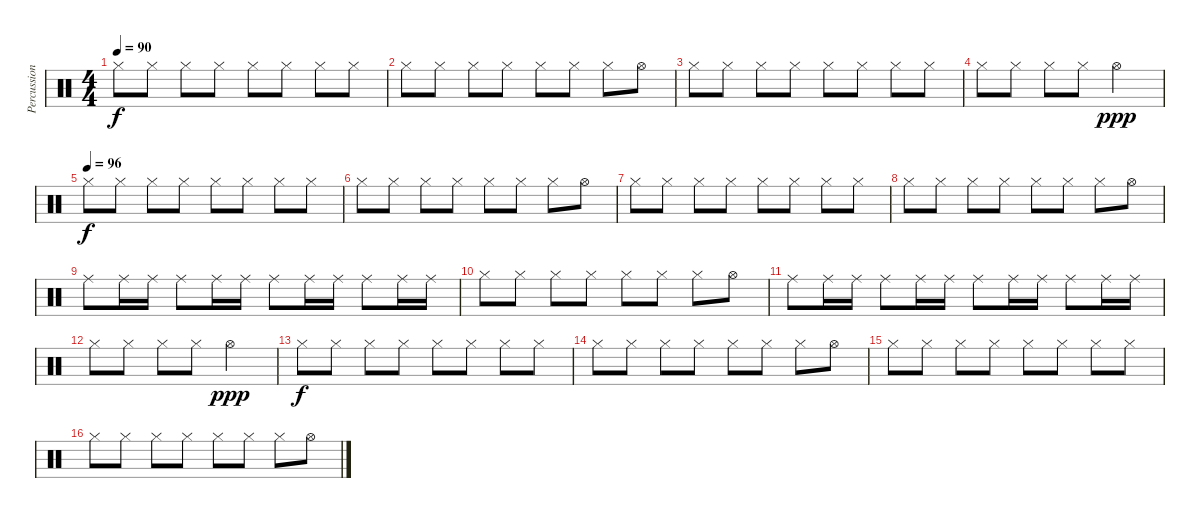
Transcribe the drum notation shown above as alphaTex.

\track ("Percussion" "Percussion") {instrument percussion}
\staff {score}
\articulation defaults
\ts (4 4)
\tempo 90
\clef neutral
\ks c "Hi-Hat (closed)".8{dy f} "Hi-Hat (closed)".8 "Hi-Hat (closed)".8 "Hi-Hat (closed)".8 "Hi-Hat (closed)".8 "Hi-Hat (closed)".8 "Hi-Hat (closed)".8 "Hi-Hat (closed)".8
|
"Hi-Hat (closed)".8 "Hi-Hat (closed)".8 "Hi-Hat (closed)".8 "Hi-Hat (closed)".8 "Hi-Hat (closed)".8 "Hi-Hat (closed)".8 "Hi-Hat (closed)".8 "Hi-Hat (open)".8 |
"Hi-Hat (closed)".8 "Hi-Hat (closed)".8 "Hi-Hat (closed)".8 "Hi-Hat (closed)".8 "Hi-Hat (closed)".8 "Hi-Hat (closed)".8 "Hi-Hat (closed)".8 "Hi-Hat (closed)".8 |
"Hi-Hat (closed)".8 "Hi-Hat (closed)".8 "Hi-Hat (closed)".8 "Hi-Hat (closed)".8 "Hi-Hat (open)".2{dy ppp} |
\tempo (96)
"Hi-Hat (closed)".8{dy f} "Hi-Hat (closed)".8 "Hi-Hat (closed)".8 "Hi-Hat (closed)".8 "Hi-Hat (closed)".8 "Hi-Hat (closed)".8 "Hi-Hat (closed)".8 "Hi-Hat (closed)".8 |
"Hi-Hat (closed)".8 "Hi-Hat (closed)".8 "Hi-Hat (closed)".8 "Hi-Hat (closed)".8 "Hi-Hat (closed)".8 "Hi-Hat (closed)".8 "Hi-Hat (closed)".8 "Hi-Hat (open)".8 |
"Hi-Hat (closed)".8 "Hi-Hat (closed)".8 "Hi-Hat (closed)".8 "Hi-Hat (closed)".8 "Hi-Hat (closed)".8 "Hi-Hat (closed)".8 "Hi-Hat (closed)".8 "Hi-Hat (closed)".8 |
"Hi-Hat (closed)".8 "Hi-Hat (closed)".8 "Hi-Hat (closed)".8 "Hi-Hat (closed)".8 "Hi-Hat (closed)".8 "Hi-Hat (closed)".8 "Hi-Hat (closed)".8 "Hi-Hat (open)".8 |
"Ride (middle)".8 "Ride (middle)".16 "Ride (middle)".16 "Ride (middle)".8 "Ride (middle)".16 "Ride (middle)".16 "Ride (middle)".8 "Ride (middle)".16 "Ride (middle)".16 "Ride (middle)".8 "Ride (middle)".16 "Ride (middle)".16 |
"Hi-Hat (closed)".8 "Hi-Hat (closed)".8 "Hi-Hat (closed)".8 "Hi-Hat (closed)".8 "Hi-Hat (closed)".8 "Hi-Hat (closed)".8 "Hi-Hat (closed)".8 "Hi-Hat (open)".8 |
"Ride (middle)".8 "Ride (middle)".16 "Ride (middle)".16 "Ride (middle)".8 "Ride (middle)".16 "Ride (middle)".16 "Ride (middle)".8 "Ride (middle)".16 "Ride (middle)".16 "Ride (middle)".8 "Ride (middle)".16 "Ride (middle)".16 |
"Hi-Hat (closed)".8 "Hi-Hat (closed)".8 "Hi-Hat (closed)".8 "Hi-Hat (closed)".8 "Hi-Hat (open)".2{dy ppp} |
"Hi-Hat (closed)".8{dy f} "Hi-Hat (closed)".8 "Hi-Hat (closed)".8 "Hi-Hat (closed)".8 "Hi-Hat (closed)".8 "Hi-Hat (closed)".8 "Hi-Hat (closed)".8 "Hi-Hat (closed)".8 |
"Hi-Hat (closed)".8 "Hi-Hat (closed)".8 "Hi-Hat (closed)".8 "Hi-Hat (closed)".8 "Hi-Hat (closed)".8 "Hi-Hat (closed)".8 "Hi-Hat (closed)".8 "Hi-Hat (open)".8 |
"Hi-Hat (closed)".8 "Hi-Hat (closed)".8 "Hi-Hat (closed)".8 "Hi-Hat (closed)".8 "Hi-Hat (closed)".8 "Hi-Hat (closed)".8 "Hi-Hat (closed)".8 "Hi-Hat (closed)".8 |
"Hi-Hat (closed)".8 "Hi-Hat (closed)".8 "Hi-Hat (closed)".8 "Hi-Hat (closed)".8 "Hi-Hat (closed)".8 "Hi-Hat (closed)".8 "Hi-Hat (closed)".8 "Hi-Hat (open)".8
